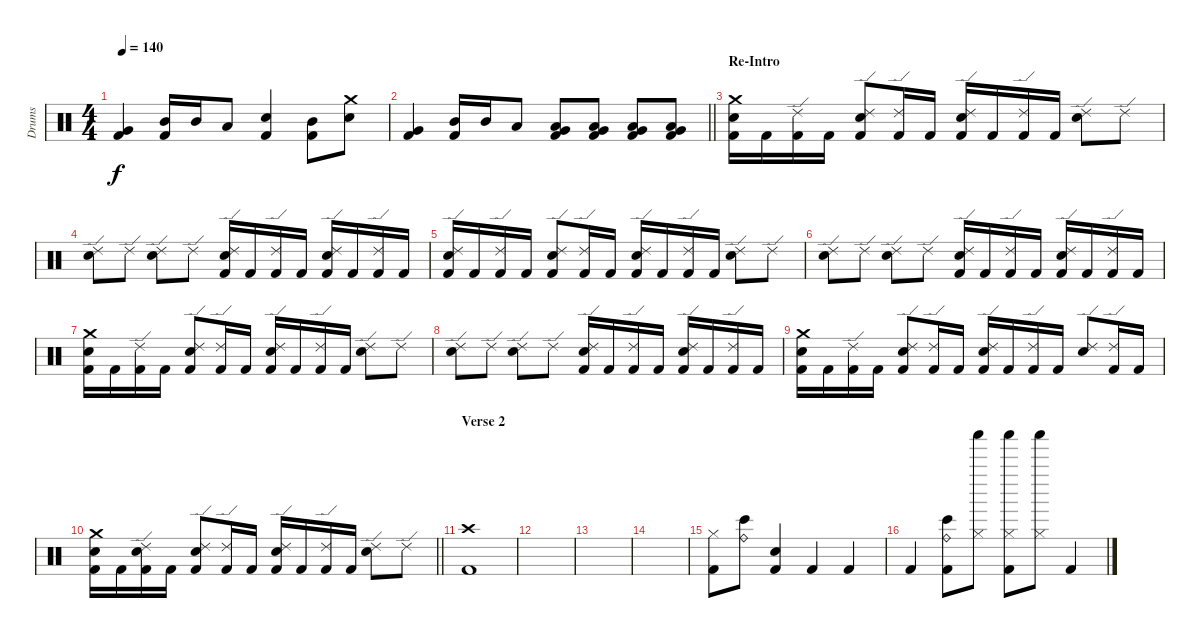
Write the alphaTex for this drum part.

\track ("Drums" "Drums") {instrument percussion}
\staff {score}
\articulation defaults
\ts (4 4)
\tempo 140
\clef neutral
\ks c
("Very Low Tom (hit)" "Kick (hit) 2").4{dy f} ("Mid Tom (hit)" "Kick (hit) 2").16 "Mid Tom (hit)".16 "Low Tom (hit)".8 ("Snare (hit) 2" "Kick (hit) 2").4 ("Mid Tom (hit)" "Kick (hit) 2").8 ("Crash medium (hit)" "Snare (hit) 2").8 |
\barLineRight lightlight
("Very Low Tom (hit)" "Kick (hit) 2").4 ("Mid Tom (hit)" "Kick (hit) 2").16 "Mid Tom (hit)".16 "Low Tom (hit)".8 ("Very Low Tom (hit)" "Low Floor Tom (hit)" "Kick (hit) 2").8 ("Very Low Tom (hit)" "Low Floor Tom (hit)" "Kick (hit) 2").8 ("Very Low Tom (hit)" "Low Floor Tom (hit)" "Kick (hit) 2").8 ("Very Low Tom (hit)" "Low Floor Tom (hit)" "Kick (hit) 2").8 |
\section ("" "Re-Intro")
("Crash medium (hit)" "Snare (hit) 2" "Kick (hit) 2").16 "Kick (hit) 2".16 ("Ride (edge) 2" "Kick (hit) 2").16 "Kick (hit) 2".16 ("Ride (edge) 2" "Snare (hit) 2" "Kick (hit) 2").8 ("Ride (edge) 2" "Kick (hit) 2").16 "Kick (hit) 2".16 ("Ride (edge) 2" "Snare (hit) 2" "Kick (hit) 2").16 "Kick (hit) 2".16 ("Ride (edge) 2" "Kick (hit) 2").16 "Kick (hit) 2".16 ("Ride (edge) 2" "Snare (hit) 2").8 "Ride (edge) 2".8 |
("Ride (edge) 2" "Snare (hit) 2").8 "Ride (edge) 2".8 ("Ride (edge) 2" "Snare (hit) 2").8 "Ride (edge) 2".8 ("Ride (edge) 2" "Snare (hit) 2" "Kick (hit) 2").16 "Kick (hit) 2".16 ("Ride (edge) 2" "Kick (hit) 2").16 "Kick (hit) 2".16 ("Ride (edge) 2" "Snare (hit) 2" "Kick (hit) 2").16 "Kick (hit) 2".16 ("Ride (edge) 2" "Kick (hit) 2").16 "Kick (hit) 2".16 |
("Ride (edge) 2" "Snare (hit) 2" "Kick (hit) 2").16 "Kick (hit) 2".16 ("Ride (edge) 2" "Kick (hit) 2").16 "Kick (hit) 2".16 ("Ride (edge) 2" "Snare (hit) 2" "Kick (hit) 2").8 ("Ride (edge) 2" "Kick (hit) 2").16 "Kick (hit) 2".16 ("Ride (edge) 2" "Snare (hit) 2" "Kick (hit) 2").16 "Kick (hit) 2".16 ("Ride (edge) 2" "Kick (hit) 2").16 "Kick (hit) 2".16 ("Ride (edge) 2" "Snare (hit) 2").8 "Ride (edge) 2".8 |
("Ride (edge) 2" "Snare (hit) 2").8 "Ride (edge) 2".8 ("Ride (edge) 2" "Snare (hit) 2").8 "Ride (edge) 2".8 ("Ride (edge) 2" "Snare (hit) 2" "Kick (hit) 2").16 "Kick (hit) 2".16 ("Ride (edge) 2" "Kick (hit) 2").16 "Kick (hit) 2".16 ("Ride (edge) 2" "Snare (hit) 2" "Kick (hit) 2").16 "Kick (hit) 2".16 ("Ride (edge) 2" "Kick (hit) 2").16 "Kick (hit) 2".16 |
("Crash medium (hit)" "Snare (hit) 2" "Kick (hit) 2").16 "Kick (hit) 2".16 ("Ride (edge) 2" "Kick (hit) 2").16 "Kick (hit) 2".16 ("Ride (edge) 2" "Snare (hit) 2" "Kick (hit) 2").8 ("Ride (edge) 2" "Kick (hit) 2").16 "Kick (hit) 2".16 ("Ride (edge) 2" "Snare (hit) 2" "Kick (hit) 2").16 "Kick (hit) 2".16 ("Ride (edge) 2" "Kick (hit) 2").16 "Kick (hit) 2".16 ("Ride (edge) 2" "Snare (hit) 2").8 "Ride (edge) 2".8 |
("Ride (edge) 2" "Snare (hit) 2").8 "Ride (edge) 2".8 ("Ride (edge) 2" "Snare (hit) 2").8 "Ride (edge) 2".8 ("Ride (edge) 2" "Snare (hit) 2" "Kick (hit) 2").16 "Kick (hit) 2".16 ("Ride (edge) 2" "Kick (hit) 2").16 "Kick (hit) 2".16 ("Ride (edge) 2" "Snare (hit) 2" "Kick (hit) 2").16 "Kick (hit) 2".16 ("Ride (edge) 2" "Kick (hit) 2").16 "Kick (hit) 2".16 |
("Crash medium (hit)" "Snare (hit) 2" "Kick (hit) 2").16 "Kick (hit) 2".16 ("Ride (edge) 2" "Kick (hit) 2").16 "Kick (hit) 2".16 ("Ride (edge) 2" "Snare (hit) 2" "Kick (hit) 2").8 ("Ride (edge) 2" "Kick (hit) 2").16 "Kick (hit) 2".16 ("Ride (edge) 2" "Snare (hit) 2" "Kick (hit) 2").16 "Kick (hit) 2".16 ("Ride (edge) 2" "Kick (hit) 2").16 "Kick (hit) 2".16 ("Ride (edge) 2" "Snare (hit) 2").8 ("Ride (edge) 2" "Kick (hit) 2").16 "Kick (hit) 2".16 |
\barLineRight lightlight
("Crash medium (hit)" "Snare (hit) 2" "Kick (hit) 2").16 "Kick (hit) 2".16 ("Ride (edge) 2" "Snare (hit) 2" "Kick (hit) 2").16 "Kick (hit) 2".16 ("Ride (edge) 2" "Snare (hit) 2" "Kick (hit) 2").8 ("Ride (edge) 2" "Kick (hit) 2").16 "Kick (hit) 2".16 ("Ride (edge) 2" "Snare (hit) 2" "Kick (hit) 2").16 "Kick (hit) 2".16 ("Ride (edge) 2" "Kick (hit) 2").16 "Kick (hit) 2".16 ("Ride (edge) 2" "Snare (hit) 2").8 "Ride (edge) 2".8 |
\section ("" "Verse 2")
("Crash high (hit)" "Kick (hit) 2").1 |
|
|
|
("Hi-Hat (closed)" "Kick (hit) 2").8 ("Ride (bell)" "Bongo High (hit)").8 ("Snare (hit) 2" "Kick (hit) 2").4 "Kick (hit) 2".4 "Kick (hit) 2".4 |
"Kick (hit) 2".4 ("Ride (bell)" "Bongo High (hit)" "Kick (hit) 2").8 ("Shaker (hit)" "Hi-Hat (closed)").8 ("Shaker (hit)" "Hi-Hat (closed)" "Kick (hit) 2").8 ("Shaker (hit)" "Hi-Hat (closed)").8 "Kick (hit) 2".4
